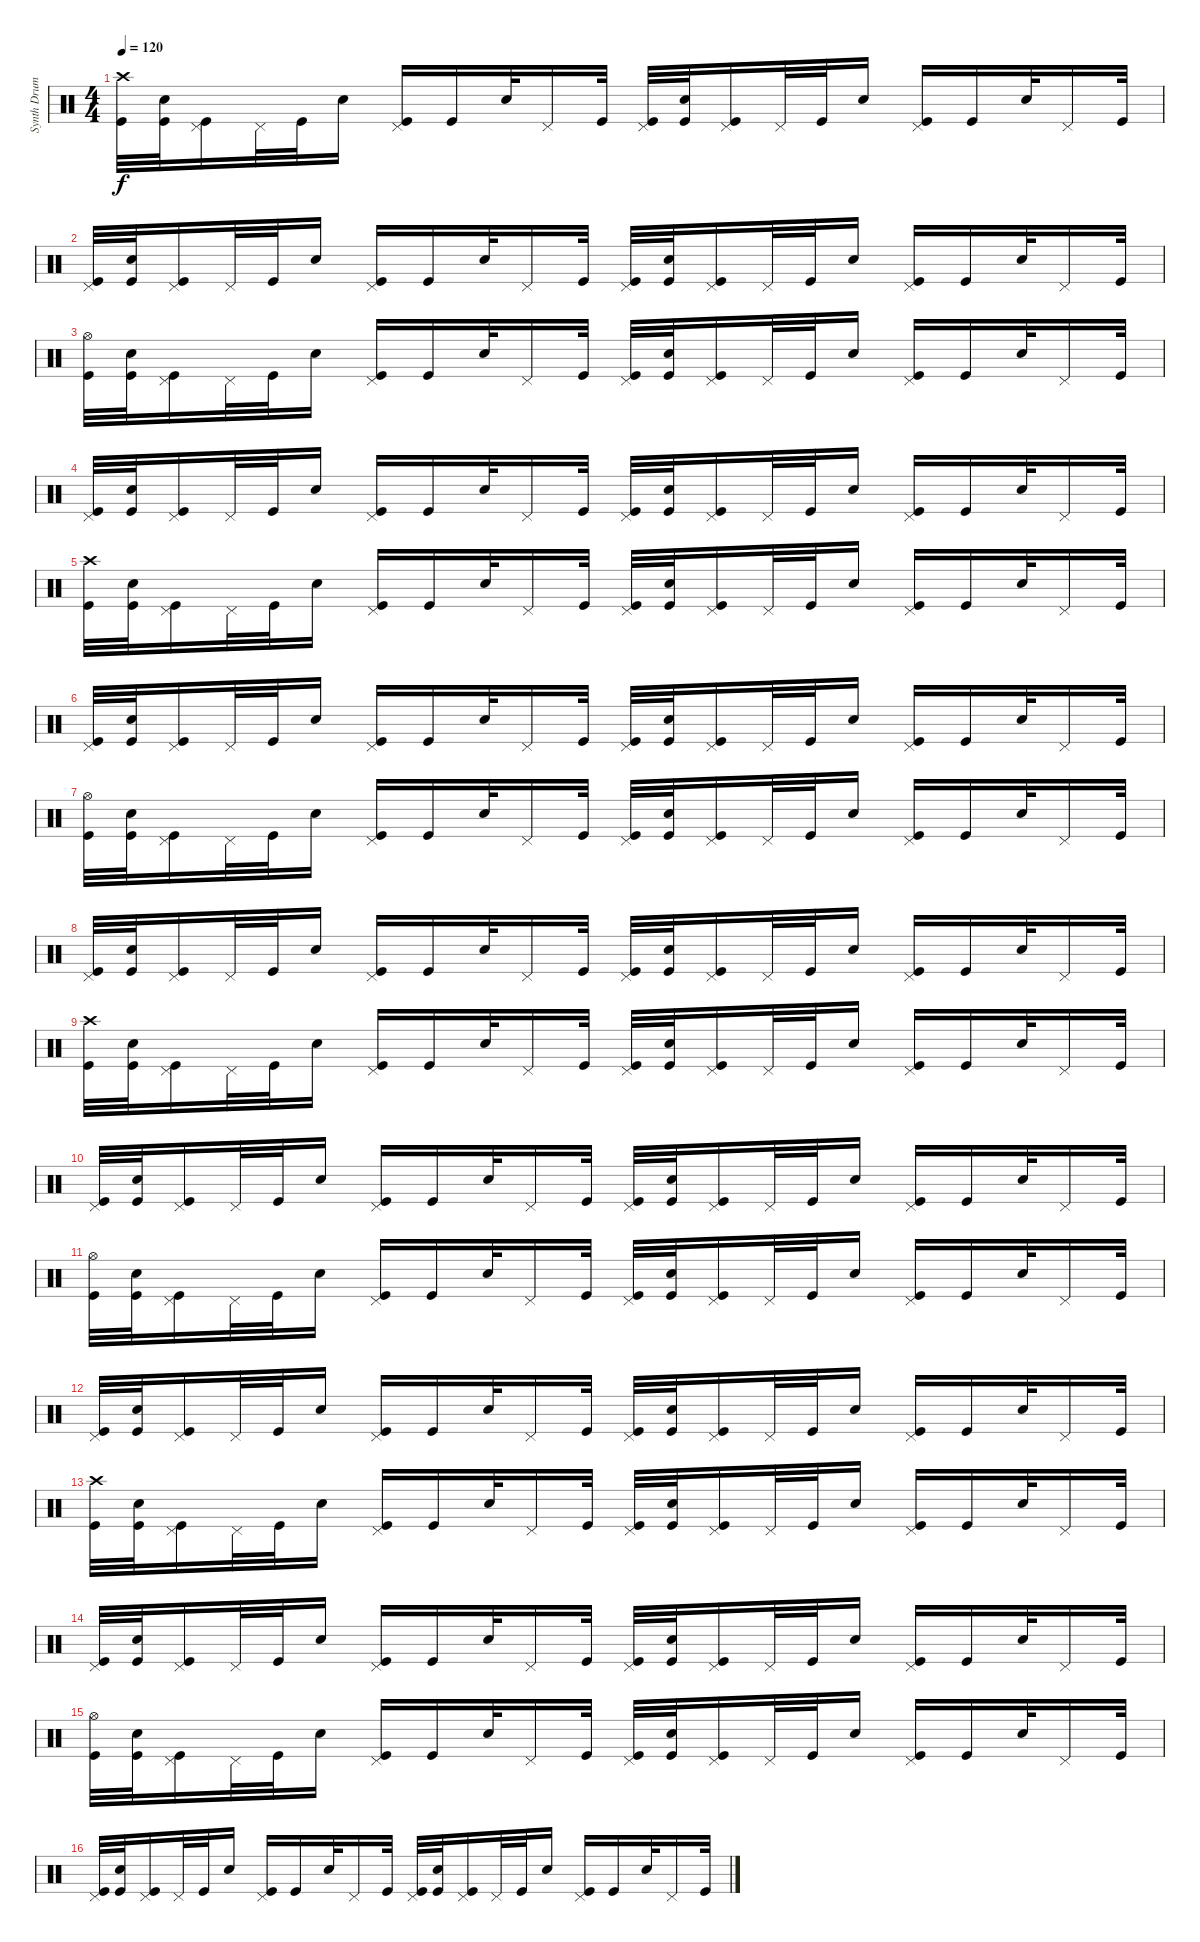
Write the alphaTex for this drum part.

\track ("Synth Drums" "Synth Drum") {instrument percussion}
\staff {score}
\articulation defaults
\ts (4 4)
\tempo 120
\clef neutral
\ks c
("Crash high (hit)" "Kick (hit)").32{dy f} ("Snare (hit) 2" "Kick (hit)").32 ("Pedal Hi-Hat (hit)" "Kick (hit)").16 "Pedal Hi-Hat (hit)".32 "Kick (hit)".32 "Snare (hit) 2".16 ("Pedal Hi-Hat (hit)" "Kick (hit)").16 "Kick (hit)".16 "Snare (hit) 2".32 "Pedal Hi-Hat (hit)".16 "Kick (hit)".32 ("Pedal Hi-Hat (hit)" "Kick (hit)").32 ("Snare (hit) 2" "Kick (hit)").32 ("Pedal Hi-Hat (hit)" "Kick (hit)").16 "Pedal Hi-Hat (hit)".32 "Kick (hit)".32 "Snare (hit) 2".16 ("Pedal Hi-Hat (hit)" "Kick (hit)").16 "Kick (hit)".16 "Snare (hit) 2".32 "Pedal Hi-Hat (hit)".16 "Kick (hit)".32 |
("Pedal Hi-Hat (hit)" "Kick (hit)").32 ("Snare (hit) 2" "Kick (hit)").32 ("Pedal Hi-Hat (hit)" "Kick (hit)").16 "Pedal Hi-Hat (hit)".32 "Kick (hit)".32 "Snare (hit) 2".16 ("Pedal Hi-Hat (hit)" "Kick (hit)").16 "Kick (hit)".16 "Snare (hit) 2".32 "Pedal Hi-Hat (hit)".16 "Kick (hit)".32 ("Pedal Hi-Hat (hit)" "Kick (hit)").32 ("Snare (hit) 2" "Kick (hit)").32 ("Pedal Hi-Hat (hit)" "Kick (hit)").16 "Pedal Hi-Hat (hit)".32 "Kick (hit)".32 "Snare (hit) 2".16 ("Pedal Hi-Hat (hit)" "Kick (hit)").16 "Kick (hit)".16 "Snare (hit) 2".32 "Pedal Hi-Hat (hit)".16 "Kick (hit)".32 |
("Hi-Hat (open)" "Kick (hit)").32 ("Snare (hit) 2" "Kick (hit)").32 ("Pedal Hi-Hat (hit)" "Kick (hit)").16 "Pedal Hi-Hat (hit)".32 "Kick (hit)".32 "Snare (hit) 2".16 ("Pedal Hi-Hat (hit)" "Kick (hit)").16 "Kick (hit)".16 "Snare (hit) 2".32 "Pedal Hi-Hat (hit)".16 "Kick (hit)".32 ("Pedal Hi-Hat (hit)" "Kick (hit)").32 ("Snare (hit) 2" "Kick (hit)").32 ("Pedal Hi-Hat (hit)" "Kick (hit)").16 "Pedal Hi-Hat (hit)".32 "Kick (hit)".32 "Snare (hit) 2".16 ("Pedal Hi-Hat (hit)" "Kick (hit)").16 "Kick (hit)".16 "Snare (hit) 2".32 "Pedal Hi-Hat (hit)".16 "Kick (hit)".32 |
("Pedal Hi-Hat (hit)" "Kick (hit)").32 ("Snare (hit) 2" "Kick (hit)").32 ("Pedal Hi-Hat (hit)" "Kick (hit)").16 "Pedal Hi-Hat (hit)".32 "Kick (hit)".32 "Snare (hit) 2".16 ("Pedal Hi-Hat (hit)" "Kick (hit)").16 "Kick (hit)".16 "Snare (hit) 2".32 "Pedal Hi-Hat (hit)".16 "Kick (hit)".32 ("Pedal Hi-Hat (hit)" "Kick (hit)").32 ("Snare (hit) 2" "Kick (hit)").32 ("Pedal Hi-Hat (hit)" "Kick (hit)").16 "Pedal Hi-Hat (hit)".32 "Kick (hit)".32 "Snare (hit) 2".16 ("Pedal Hi-Hat (hit)" "Kick (hit)").16 "Kick (hit)".16 "Snare (hit) 2".32 "Pedal Hi-Hat (hit)".16 "Kick (hit)".32 |
("Crash high (hit)" "Kick (hit)").32 ("Snare (hit) 2" "Kick (hit)").32 ("Pedal Hi-Hat (hit)" "Kick (hit)").16 "Pedal Hi-Hat (hit)".32 "Kick (hit)".32 "Snare (hit) 2".16 ("Pedal Hi-Hat (hit)" "Kick (hit)").16 "Kick (hit)".16 "Snare (hit) 2".32 "Pedal Hi-Hat (hit)".16 "Kick (hit)".32 ("Pedal Hi-Hat (hit)" "Kick (hit)").32 ("Snare (hit) 2" "Kick (hit)").32 ("Pedal Hi-Hat (hit)" "Kick (hit)").16 "Pedal Hi-Hat (hit)".32 "Kick (hit)".32 "Snare (hit) 2".16 ("Pedal Hi-Hat (hit)" "Kick (hit)").16 "Kick (hit)".16 "Snare (hit) 2".32 "Pedal Hi-Hat (hit)".16 "Kick (hit)".32 |
("Pedal Hi-Hat (hit)" "Kick (hit)").32 ("Snare (hit) 2" "Kick (hit)").32 ("Pedal Hi-Hat (hit)" "Kick (hit)").16 "Pedal Hi-Hat (hit)".32 "Kick (hit)".32 "Snare (hit) 2".16 ("Pedal Hi-Hat (hit)" "Kick (hit)").16 "Kick (hit)".16 "Snare (hit) 2".32 "Pedal Hi-Hat (hit)".16 "Kick (hit)".32 ("Pedal Hi-Hat (hit)" "Kick (hit)").32 ("Snare (hit) 2" "Kick (hit)").32 ("Pedal Hi-Hat (hit)" "Kick (hit)").16 "Pedal Hi-Hat (hit)".32 "Kick (hit)".32 "Snare (hit) 2".16 ("Pedal Hi-Hat (hit)" "Kick (hit)").16 "Kick (hit)".16 "Snare (hit) 2".32 "Pedal Hi-Hat (hit)".16 "Kick (hit)".32 |
("Hi-Hat (open)" "Kick (hit)").32 ("Snare (hit) 2" "Kick (hit)").32 ("Pedal Hi-Hat (hit)" "Kick (hit)").16 "Pedal Hi-Hat (hit)".32 "Kick (hit)".32 "Snare (hit) 2".16 ("Pedal Hi-Hat (hit)" "Kick (hit)").16 "Kick (hit)".16 "Snare (hit) 2".32 "Pedal Hi-Hat (hit)".16 "Kick (hit)".32 ("Pedal Hi-Hat (hit)" "Kick (hit)").32 ("Snare (hit) 2" "Kick (hit)").32 ("Pedal Hi-Hat (hit)" "Kick (hit)").16 "Pedal Hi-Hat (hit)".32 "Kick (hit)".32 "Snare (hit) 2".16 ("Pedal Hi-Hat (hit)" "Kick (hit)").16 "Kick (hit)".16 "Snare (hit) 2".32 "Pedal Hi-Hat (hit)".16 "Kick (hit)".32 |
("Pedal Hi-Hat (hit)" "Kick (hit)").32 ("Snare (hit) 2" "Kick (hit)").32 ("Pedal Hi-Hat (hit)" "Kick (hit)").16 "Pedal Hi-Hat (hit)".32 "Kick (hit)".32 "Snare (hit) 2".16 ("Pedal Hi-Hat (hit)" "Kick (hit)").16 "Kick (hit)".16 "Snare (hit) 2".32 "Pedal Hi-Hat (hit)".16 "Kick (hit)".32 ("Pedal Hi-Hat (hit)" "Kick (hit)").32 ("Snare (hit) 2" "Kick (hit)").32 ("Pedal Hi-Hat (hit)" "Kick (hit)").16 "Pedal Hi-Hat (hit)".32 "Kick (hit)".32 "Snare (hit) 2".16 ("Pedal Hi-Hat (hit)" "Kick (hit)").16 "Kick (hit)".16 "Snare (hit) 2".32 "Pedal Hi-Hat (hit)".16 "Kick (hit)".32 |
("Crash high (hit)" "Kick (hit)").32 ("Snare (hit) 2" "Kick (hit)").32 ("Pedal Hi-Hat (hit)" "Kick (hit)").16 "Pedal Hi-Hat (hit)".32 "Kick (hit)".32 "Snare (hit) 2".16 ("Pedal Hi-Hat (hit)" "Kick (hit)").16 "Kick (hit)".16 "Snare (hit) 2".32 "Pedal Hi-Hat (hit)".16 "Kick (hit)".32 ("Pedal Hi-Hat (hit)" "Kick (hit)").32 ("Snare (hit) 2" "Kick (hit)").32 ("Pedal Hi-Hat (hit)" "Kick (hit)").16 "Pedal Hi-Hat (hit)".32 "Kick (hit)".32 "Snare (hit) 2".16 ("Pedal Hi-Hat (hit)" "Kick (hit)").16 "Kick (hit)".16 "Snare (hit) 2".32 "Pedal Hi-Hat (hit)".16 "Kick (hit)".32 |
("Pedal Hi-Hat (hit)" "Kick (hit)").32 ("Snare (hit) 2" "Kick (hit)").32 ("Pedal Hi-Hat (hit)" "Kick (hit)").16 "Pedal Hi-Hat (hit)".32 "Kick (hit)".32 "Snare (hit) 2".16 ("Pedal Hi-Hat (hit)" "Kick (hit)").16 "Kick (hit)".16 "Snare (hit) 2".32 "Pedal Hi-Hat (hit)".16 "Kick (hit)".32 ("Pedal Hi-Hat (hit)" "Kick (hit)").32 ("Snare (hit) 2" "Kick (hit)").32 ("Pedal Hi-Hat (hit)" "Kick (hit)").16 "Pedal Hi-Hat (hit)".32 "Kick (hit)".32 "Snare (hit) 2".16 ("Pedal Hi-Hat (hit)" "Kick (hit)").16 "Kick (hit)".16 "Snare (hit) 2".32 "Pedal Hi-Hat (hit)".16 "Kick (hit)".32 |
("Hi-Hat (open)" "Kick (hit)").32 ("Snare (hit) 2" "Kick (hit)").32 ("Pedal Hi-Hat (hit)" "Kick (hit)").16 "Pedal Hi-Hat (hit)".32 "Kick (hit)".32 "Snare (hit) 2".16 ("Pedal Hi-Hat (hit)" "Kick (hit)").16 "Kick (hit)".16 "Snare (hit) 2".32 "Pedal Hi-Hat (hit)".16 "Kick (hit)".32 ("Pedal Hi-Hat (hit)" "Kick (hit)").32 ("Snare (hit) 2" "Kick (hit)").32 ("Pedal Hi-Hat (hit)" "Kick (hit)").16 "Pedal Hi-Hat (hit)".32 "Kick (hit)".32 "Snare (hit) 2".16 ("Pedal Hi-Hat (hit)" "Kick (hit)").16 "Kick (hit)".16 "Snare (hit) 2".32 "Pedal Hi-Hat (hit)".16 "Kick (hit)".32 |
("Pedal Hi-Hat (hit)" "Kick (hit)").32 ("Snare (hit) 2" "Kick (hit)").32 ("Pedal Hi-Hat (hit)" "Kick (hit)").16 "Pedal Hi-Hat (hit)".32 "Kick (hit)".32 "Snare (hit) 2".16 ("Pedal Hi-Hat (hit)" "Kick (hit)").16 "Kick (hit)".16 "Snare (hit) 2".32 "Pedal Hi-Hat (hit)".16 "Kick (hit)".32 ("Pedal Hi-Hat (hit)" "Kick (hit)").32 ("Snare (hit) 2" "Kick (hit)").32 ("Pedal Hi-Hat (hit)" "Kick (hit)").16 "Pedal Hi-Hat (hit)".32 "Kick (hit)".32 "Snare (hit) 2".16 ("Pedal Hi-Hat (hit)" "Kick (hit)").16 "Kick (hit)".16 "Snare (hit) 2".32 "Pedal Hi-Hat (hit)".16 "Kick (hit)".32 |
("Crash high (hit)" "Kick (hit)").32 ("Snare (hit) 2" "Kick (hit)").32 ("Pedal Hi-Hat (hit)" "Kick (hit)").16 "Pedal Hi-Hat (hit)".32 "Kick (hit)".32 "Snare (hit) 2".16 ("Pedal Hi-Hat (hit)" "Kick (hit)").16 "Kick (hit)".16 "Snare (hit) 2".32 "Pedal Hi-Hat (hit)".16 "Kick (hit)".32 ("Pedal Hi-Hat (hit)" "Kick (hit)").32 ("Snare (hit) 2" "Kick (hit)").32 ("Pedal Hi-Hat (hit)" "Kick (hit)").16 "Pedal Hi-Hat (hit)".32 "Kick (hit)".32 "Snare (hit) 2".16 ("Pedal Hi-Hat (hit)" "Kick (hit)").16 "Kick (hit)".16 "Snare (hit) 2".32 "Pedal Hi-Hat (hit)".16 "Kick (hit)".32 |
("Pedal Hi-Hat (hit)" "Kick (hit)").32 ("Snare (hit) 2" "Kick (hit)").32 ("Pedal Hi-Hat (hit)" "Kick (hit)").16 "Pedal Hi-Hat (hit)".32 "Kick (hit)".32 "Snare (hit) 2".16 ("Pedal Hi-Hat (hit)" "Kick (hit)").16 "Kick (hit)".16 "Snare (hit) 2".32 "Pedal Hi-Hat (hit)".16 "Kick (hit)".32 ("Pedal Hi-Hat (hit)" "Kick (hit)").32 ("Snare (hit) 2" "Kick (hit)").32 ("Pedal Hi-Hat (hit)" "Kick (hit)").16 "Pedal Hi-Hat (hit)".32 "Kick (hit)".32 "Snare (hit) 2".16 ("Pedal Hi-Hat (hit)" "Kick (hit)").16 "Kick (hit)".16 "Snare (hit) 2".32 "Pedal Hi-Hat (hit)".16 "Kick (hit)".32 |
("Hi-Hat (open)" "Kick (hit)").32 ("Snare (hit) 2" "Kick (hit)").32 ("Pedal Hi-Hat (hit)" "Kick (hit)").16 "Pedal Hi-Hat (hit)".32 "Kick (hit)".32 "Snare (hit) 2".16 ("Pedal Hi-Hat (hit)" "Kick (hit)").16 "Kick (hit)".16 "Snare (hit) 2".32 "Pedal Hi-Hat (hit)".16 "Kick (hit)".32 ("Pedal Hi-Hat (hit)" "Kick (hit)").32 ("Snare (hit) 2" "Kick (hit)").32 ("Pedal Hi-Hat (hit)" "Kick (hit)").16 "Pedal Hi-Hat (hit)".32 "Kick (hit)".32 "Snare (hit) 2".16 ("Pedal Hi-Hat (hit)" "Kick (hit)").16 "Kick (hit)".16 "Snare (hit) 2".32 "Pedal Hi-Hat (hit)".16 "Kick (hit)".32 |
("Pedal Hi-Hat (hit)" "Kick (hit)").32 ("Snare (hit) 2" "Kick (hit)").32 ("Pedal Hi-Hat (hit)" "Kick (hit)").16 "Pedal Hi-Hat (hit)".32 "Kick (hit)".32 "Snare (hit) 2".16 ("Pedal Hi-Hat (hit)" "Kick (hit)").16 "Kick (hit)".16 "Snare (hit) 2".32 "Pedal Hi-Hat (hit)".16 "Kick (hit)".32 ("Pedal Hi-Hat (hit)" "Kick (hit)").32 ("Snare (hit) 2" "Kick (hit)").32 ("Pedal Hi-Hat (hit)" "Kick (hit)").16 "Pedal Hi-Hat (hit)".32 "Kick (hit)".32 "Snare (hit) 2".16 ("Pedal Hi-Hat (hit)" "Kick (hit)").16 "Kick (hit)".16 "Snare (hit) 2".32 "Pedal Hi-Hat (hit)".16 "Kick (hit)".32
